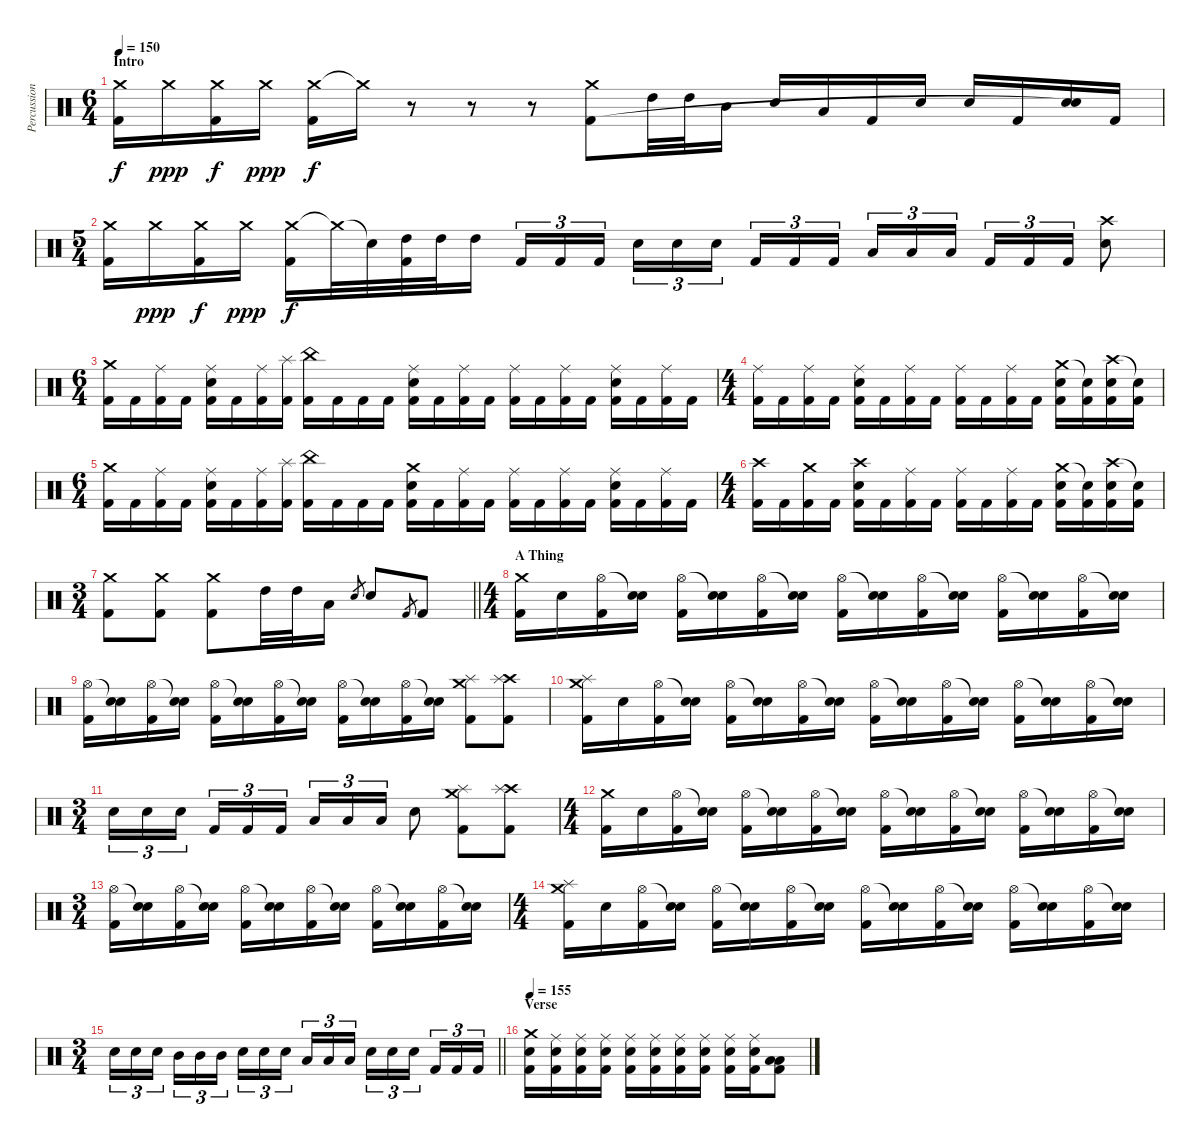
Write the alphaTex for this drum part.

\track ("Percussion" "Percussion") {instrument percussion}
\staff {score}
\articulation defaults
\ts (6 4)
\section ("" "Intro")
\tempo 150
\clef neutral
\ks c
("Crash medium (hit)" "Kick (hit) 2").16{dy f} "Crash medium (hit)".16{dy ppp} ("Crash medium (hit)" "Kick (hit) 2").16{dy f} "Crash medium (hit)".16{dy ppp} ("Crash medium (hit)" "Kick (hit) 2").16{dy f} "Crash medium (hit)"{t}.16 r.8 r.8 r.8 ("Crash medium (hit)" "Kick (hit) 2").8 "High Tom (hit)".32 "High Tom (hit)".32 "Mid Tom (hit)".16 "Electric Snare (hit)".16 "Low Tom (hit)".16 "Kick (hit) 2".16 "Electric Snare (hit)".16 "Electric Snare (hit)".16 "Kick (hit) 2".16 ("Electric Snare (hit)" "Snare (hit)"{t}).16 "Kick (hit) 2".16 |
\ts (5 4)
("Crash medium (hit)" "Kick (hit) 2").16 "Crash medium (hit)".16{dy ppp} ("Crash medium (hit)" "Kick (hit) 2").16{dy f} "Crash medium (hit)".16{dy ppp} ("Crash medium (hit)" "Kick (hit) 2").16{dy f} "Crash medium (hit)"{t}.32 "Snare (hit)"{t}.32 ("High Tom (hit)" "Kick (hit) 2").32 "High Tom (hit)".32 "High Tom (hit)".16 "Kick (hit) 2".16{tu (3 2)} "Kick (hit) 2".16{tu (3 2)} "Kick (hit) 2".16{tu (3 2)} "Electric Snare (hit)".16{tu (3 2)} "Electric Snare (hit)".16{tu (3 2)} "Electric Snare (hit)".16{tu (3 2)} "Kick (hit) 2".16{tu (3 2)} "Kick (hit) 2".16{tu (3 2)} "Kick (hit) 2".16{tu (3 2)} "Low Tom (hit)".16{tu (3 2)} "Low Tom (hit)".16{tu (3 2)} "Low Tom (hit)".16{tu (3 2)} "Kick (hit) 2".16{tu (3 2)} "Kick (hit) 2".16{tu (3 2)} "Kick (hit) 2".16{tu (3 2)} ("Crash high (hit)" "Electric Snare (hit)").8 |
\ts (6 4)
("Crash medium (hit)" "Kick (hit) 2").16 "Kick (hit) 2".16 ("Ride (middle)" "Kick (hit) 2").16 "Kick (hit) 2".16 ("Ride (middle)" "Electric Snare (hit)" "Kick (hit) 2").16 "Kick (hit) 2".16 ("Ride (middle)" "Kick (hit) 2").16 ("Splash (hit)" "Kick (hit) 2").16 ("China (hit)" "Kick (hit) 2").16 "Kick (hit) 2".16 "Kick (hit) 2".16 "Kick (hit) 2".16 ("Ride (middle)" "Electric Snare (hit)" "Kick (hit) 2").16 "Kick (hit) 2".16 ("Ride (middle)" "Kick (hit) 2").16 "Kick (hit) 2".16 ("Ride (middle)" "Kick (hit) 2").16 "Kick (hit) 2".16 ("Ride (middle)" "Kick (hit) 2").16 "Kick (hit) 2".16 ("Ride (middle)" "Electric Snare (hit)" "Kick (hit) 2").16 "Kick (hit) 2".16 ("Ride (middle)" "Kick (hit) 2").16 "Kick (hit) 2".16 |
\ts (4 4)
("Ride (middle)" "Kick (hit) 2").16 "Kick (hit) 2".16 ("Ride (middle)" "Kick (hit) 2").16 "Kick (hit) 2".16 ("Ride (middle)" "Electric Snare (hit)" "Kick (hit) 2").16 "Kick (hit) 2".16 ("Ride (middle)" "Kick (hit) 2").16 "Kick (hit) 2".16 ("Ride (middle)" "Kick (hit) 2").16 "Kick (hit) 2".16 ("Ride (middle)" "Kick (hit) 2").16 "Kick (hit) 2".16 ("Crash medium (hit)" "Electric Snare (hit)" "Kick (hit) 2").16 ("Snare (hit)"{t} "Kick (hit) 2").16 ("Crash high (hit)" "Electric Snare (hit)" "Kick (hit) 2").16 ("Snare (hit)"{t} "Kick (hit) 2").16 |
\ts (6 4)
("Crash medium (hit)" "Kick (hit) 2").16 "Kick (hit) 2".16 ("Ride (middle)" "Kick (hit) 2").16 "Kick (hit) 2".16 ("Ride (middle)" "Electric Snare (hit)" "Kick (hit) 2").16 "Kick (hit) 2".16 ("Ride (middle)" "Kick (hit) 2").16 ("Splash (hit)" "Kick (hit) 2").16 ("China (hit)" "Kick (hit) 2").16 "Kick (hit) 2".16 "Kick (hit) 2".16 "Kick (hit) 2".16 ("Crash medium (hit)" "Electric Snare (hit)" "Kick (hit) 2").16 "Kick (hit) 2".16 ("Ride (middle)" "Kick (hit) 2").16 "Kick (hit) 2".16 ("Ride (middle)" "Kick (hit) 2").16 "Kick (hit) 2".16 ("Ride (middle)" "Kick (hit) 2").16 "Kick (hit) 2".16 ("Ride (middle)" "Electric Snare (hit)" "Kick (hit) 2").16 "Kick (hit) 2".16 ("Ride (middle)" "Kick (hit) 2").16 "Kick (hit) 2".16 |
\ts (4 4)
("Crash high (hit)" "Kick (hit) 2").16 "Kick (hit) 2".16 ("Crash medium (hit)" "Kick (hit) 2").16 "Kick (hit) 2".16 ("Crash high (hit)" "Electric Snare (hit)" "Kick (hit) 2").16 "Kick (hit) 2".16 ("Ride (middle)" "Kick (hit) 2").16 "Kick (hit) 2".16 ("Ride (middle)" "Kick (hit) 2").16 "Kick (hit) 2".16 ("Ride (middle)" "Kick (hit) 2").16 "Kick (hit) 2".16 ("Crash medium (hit)" "Electric Snare (hit)" "Kick (hit) 2").16 ("Snare (hit)"{t} "Kick (hit) 2").16 ("Crash high (hit)" "Electric Snare (hit)" "Kick (hit) 2").16 ("Snare (hit)"{t} "Kick (hit) 2").16 |
\ts (3 4)
\barLineRight lightlight
("Crash medium (hit)" "Kick (hit) 2").8 ("Crash medium (hit)" "Kick (hit) 2").8 ("Crash medium (hit)" "Kick (hit) 2").8 "High Tom (hit)".32 "High Tom (hit)".32 "Low Tom (hit)".16 "Electric Snare (hit)".8{gr} "Electric Snare (hit)".8 "Kick (hit) 2".8{gr} "Kick (hit) 2".8 |
\ts (4 4)
\section ("" "A Thing")
("Crash medium (hit)" "Kick (hit) 2").16 "Electric Snare (hit)".16 ("Hi-Hat (open)" "Kick (hit) 2").16 ("Snare (hit)"{t} "Electric Snare (hit)").16 ("Hi-Hat (open)" "Kick (hit) 2").16 ("Snare (hit)"{t} "Electric Snare (hit)").16 ("Hi-Hat (open)" "Kick (hit) 2").16 ("Snare (hit)"{t} "Electric Snare (hit)").16 ("Hi-Hat (open)" "Kick (hit) 2").16 ("Snare (hit)"{t} "Electric Snare (hit)").16 ("Hi-Hat (open)" "Kick (hit) 2").16 ("Snare (hit)"{t} "Electric Snare (hit)").16 ("Hi-Hat (open)" "Kick (hit) 2").16 ("Snare (hit)"{t} "Electric Snare (hit)").16 ("Hi-Hat (open)" "Kick (hit) 2").16 ("Snare (hit)"{t} "Electric Snare (hit)").16 |
("Hi-Hat (open)" "Kick (hit) 2").16 ("Snare (hit)"{t} "Electric Snare (hit)").16 ("Hi-Hat (open)" "Kick (hit) 2").16 ("Snare (hit)"{t} "Electric Snare (hit)").16 ("Hi-Hat (open)" "Kick (hit) 2").16 ("Snare (hit)"{t} "Electric Snare (hit)").16 ("Hi-Hat (open)" "Kick (hit) 2").16 ("Snare (hit)"{t} "Electric Snare (hit)").16 ("Hi-Hat (open)" "Kick (hit) 2").16 ("Snare (hit)"{t} "Electric Snare (hit)").16 ("Hi-Hat (open)" "Kick (hit) 2").16 ("Snare (hit)"{t} "Electric Snare (hit)").16 ("Crash medium (hit)" "Splash (hit)" "Kick (hit) 2").8 ("Crash high (hit)" "Splash (hit)" "Kick (hit) 2").8 |
("Crash medium (hit)" "Splash (hit)" "Kick (hit) 2").16 "Electric Snare (hit)".16 ("Hi-Hat (open)" "Kick (hit) 2").16 ("Snare (hit)"{t} "Electric Snare (hit)").16 ("Hi-Hat (open)" "Kick (hit) 2").16 ("Snare (hit)"{t} "Electric Snare (hit)").16 ("Hi-Hat (open)" "Kick (hit) 2").16 ("Snare (hit)"{t} "Electric Snare (hit)").16 ("Hi-Hat (open)" "Kick (hit) 2").16 ("Snare (hit)"{t} "Electric Snare (hit)").16 ("Hi-Hat (open)" "Kick (hit) 2").16 ("Snare (hit)"{t} "Electric Snare (hit)").16 ("Hi-Hat (open)" "Kick (hit) 2").16 ("Snare (hit)"{t} "Electric Snare (hit)").16 ("Hi-Hat (open)" "Kick (hit) 2").16 ("Snare (hit)"{t} "Electric Snare (hit)").16 |
\ts (3 4)
"Electric Snare (hit)".16{tu (3 2)} "Electric Snare (hit)".16{tu (3 2)} "Electric Snare (hit)".16{tu (3 2)} "Kick (hit) 2".16{tu (3 2)} "Kick (hit) 2".16{tu (3 2)} "Kick (hit) 2".16{tu (3 2)} "Low Tom (hit)".16{tu (3 2)} "Low Tom (hit)".16{tu (3 2)} "Low Tom (hit)".16{tu (3 2)} "Electric Snare (hit)".8 ("Crash medium (hit)" "Splash (hit)" "Kick (hit) 2").8 ("Crash high (hit)" "Splash (hit)" "Kick (hit) 2").8 |
\ts (4 4)
("Crash medium (hit)" "Kick (hit) 2").16 "Electric Snare (hit)".16 ("Hi-Hat (open)" "Kick (hit) 2").16 ("Snare (hit)"{t} "Electric Snare (hit)").16 ("Hi-Hat (open)" "Kick (hit) 2").16 ("Snare (hit)"{t} "Electric Snare (hit)").16 ("Hi-Hat (open)" "Kick (hit) 2").16 ("Snare (hit)"{t} "Electric Snare (hit)").16 ("Hi-Hat (open)" "Kick (hit) 2").16 ("Snare (hit)"{t} "Electric Snare (hit)").16 ("Hi-Hat (open)" "Kick (hit) 2").16 ("Snare (hit)"{t} "Electric Snare (hit)").16 ("Hi-Hat (open)" "Kick (hit) 2").16 ("Snare (hit)"{t} "Electric Snare (hit)").16 ("Hi-Hat (open)" "Kick (hit) 2").16 ("Snare (hit)"{t} "Electric Snare (hit)").16 |
\ts (3 4)
("Hi-Hat (open)" "Kick (hit) 2").16 ("Snare (hit)"{t} "Electric Snare (hit)").16 ("Hi-Hat (open)" "Kick (hit) 2").16 ("Snare (hit)"{t} "Electric Snare (hit)").16 ("Hi-Hat (open)" "Kick (hit) 2").16 ("Snare (hit)"{t} "Electric Snare (hit)").16 ("Hi-Hat (open)" "Kick (hit) 2").16 ("Snare (hit)"{t} "Electric Snare (hit)").16 ("Hi-Hat (open)" "Kick (hit) 2").16 ("Snare (hit)"{t} "Electric Snare (hit)").16 ("Hi-Hat (open)" "Kick (hit) 2").16 ("Snare (hit)"{t} "Electric Snare (hit)").16 |
\ts (4 4)
("Crash medium (hit)" "Splash (hit)" "Kick (hit) 2").16 "Electric Snare (hit)".16 ("Hi-Hat (open)" "Kick (hit) 2").16 ("Snare (hit)"{t} "Electric Snare (hit)").16 ("Hi-Hat (open)" "Kick (hit) 2").16 ("Snare (hit)"{t} "Electric Snare (hit)").16 ("Hi-Hat (open)" "Kick (hit) 2").16 ("Snare (hit)"{t} "Electric Snare (hit)").16 ("Hi-Hat (open)" "Kick (hit) 2").16 ("Snare (hit)"{t} "Electric Snare (hit)").16 ("Hi-Hat (open)" "Kick (hit) 2").16 ("Snare (hit)"{t} "Electric Snare (hit)").16 ("Hi-Hat (open)" "Kick (hit) 2").16 ("Snare (hit)"{t} "Electric Snare (hit)").16 ("Hi-Hat (open)" "Kick (hit) 2").16 ("Snare (hit)"{t} "Electric Snare (hit)").16 |
\ts (3 4)
\barLineRight lightlight "Electric Snare (hit)".16{tu (3 2)} "Electric Snare (hit)".16{tu (3 2)} "Electric Snare (hit)".16{tu (3 2)} "Mid Tom (hit)".16{tu (3 2)} "Mid Tom (hit)".16{tu (3 2)} "Mid Tom (hit)".16{tu (3 2)} "Electric Snare (hit)".16{tu (3 2)} "Electric Snare (hit)".16{tu (3 2)} "Electric Snare (hit)".16{tu (3 2)} "Low Tom (hit)".16{tu (3 2)} "Low Tom (hit)".16{tu (3 2)} "Low Tom (hit)".16{tu (3 2)} "Electric Snare (hit)".16{tu (3 2)} "Electric Snare (hit)".16{tu (3 2)} "Electric Snare (hit)".16{tu (3 2)} "Kick (hit) 2".16{tu (3 2)} "Kick (hit) 2".16{tu (3 2)} "Kick (hit) 2".16{tu (3 2)}
|
\section ("" "Verse")
\tempo 155
("Crash medium (hit)" "Electric Snare (hit)" "Kick (hit) 2").16 ("Ride (middle)" "Electric Snare (hit)" "Kick (hit) 2").16 ("Ride (middle)" "Electric Snare (hit)" "Kick (hit) 2").16 ("Ride (middle)" "Electric Snare (hit)" "Kick (hit) 2").16 ("Ride (middle)" "Electric Snare (hit)" "Kick (hit) 2").16 ("Ride (middle)" "Electric Snare (hit)" "Kick (hit) 2").16 ("Ride (middle)" "Electric Snare (hit)" "Kick (hit) 2").16 ("Ride (middle)" "Electric Snare (hit)" "Kick (hit) 2").16 ("Ride (middle)" "Electric Snare (hit)" "Kick (hit) 2").16 ("Ride (middle)" "Electric Snare (hit)" "Kick (hit) 2").16 ("Low Tom (hit)" "Low Floor Tom (hit)" "Kick (hit) 2").8
